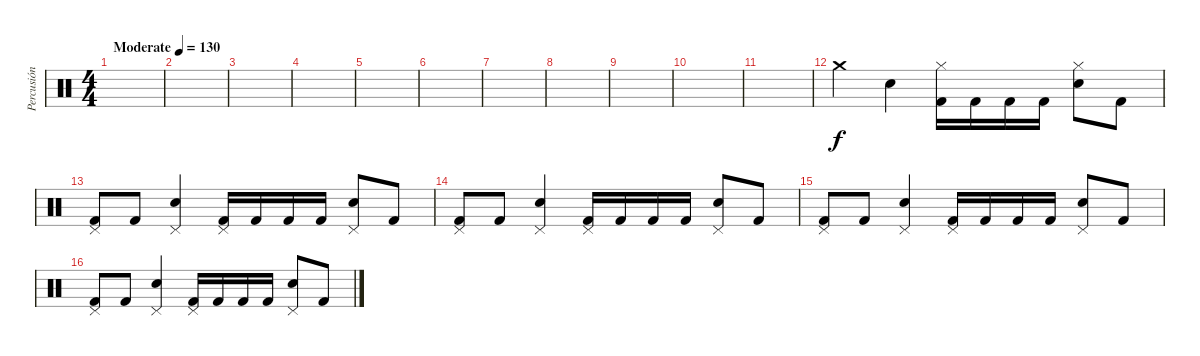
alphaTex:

\track ("Percusión" "Percusión") {solo instrument percussion}
\staff {score}
\articulation defaults
\ts (4 4)
\tempo (130 "Moderate")
\clef neutral
\ks c
|
|
|
|
|
|
|
|
|
|
|
"Crash medium (hit)".4 "Electric Snare (hit)".4 ("Kick (hit) 2" "Hi-Hat (closed)").16 "Kick (hit) 2".16 "Kick (hit) 2".16 "Kick (hit) 2".16 ("Electric Snare (hit)" "Hi-Hat (closed)").8 "Kick (hit) 2".8 |
("Kick (hit) 2" "Pedal Hi-Hat (hit)").8 "Kick (hit) 2".8 ("Electric Snare (hit)" "Pedal Hi-Hat (hit)").4 ("Kick (hit) 2" "Pedal Hi-Hat (hit)").16 "Kick (hit) 2".16 "Kick (hit) 2".16 "Kick (hit) 2".16 ("Electric Snare (hit)" "Pedal Hi-Hat (hit)").8 "Kick (hit) 2".8 |
("Kick (hit) 2" "Pedal Hi-Hat (hit)").8 "Kick (hit) 2".8 ("Electric Snare (hit)" "Pedal Hi-Hat (hit)").4 ("Kick (hit) 2" "Pedal Hi-Hat (hit)").16 "Kick (hit) 2".16 "Kick (hit) 2".16 "Kick (hit) 2".16 ("Electric Snare (hit)" "Pedal Hi-Hat (hit)").8 "Kick (hit) 2".8 |
("Kick (hit) 2" "Pedal Hi-Hat (hit)").8 "Kick (hit) 2".8 ("Electric Snare (hit)" "Pedal Hi-Hat (hit)").4 ("Kick (hit) 2" "Pedal Hi-Hat (hit)").16 "Kick (hit) 2".16 "Kick (hit) 2".16 "Kick (hit) 2".16 ("Electric Snare (hit)" "Pedal Hi-Hat (hit)").8 "Kick (hit) 2".8 |
("Kick (hit) 2" "Pedal Hi-Hat (hit)").8 "Kick (hit) 2".8 ("Electric Snare (hit)" "Pedal Hi-Hat (hit)").4 ("Kick (hit) 2" "Pedal Hi-Hat (hit)").16 "Kick (hit) 2".16 "Kick (hit) 2".16 "Kick (hit) 2".16 ("Electric Snare (hit)" "Pedal Hi-Hat (hit)").8 "Kick (hit) 2".8
